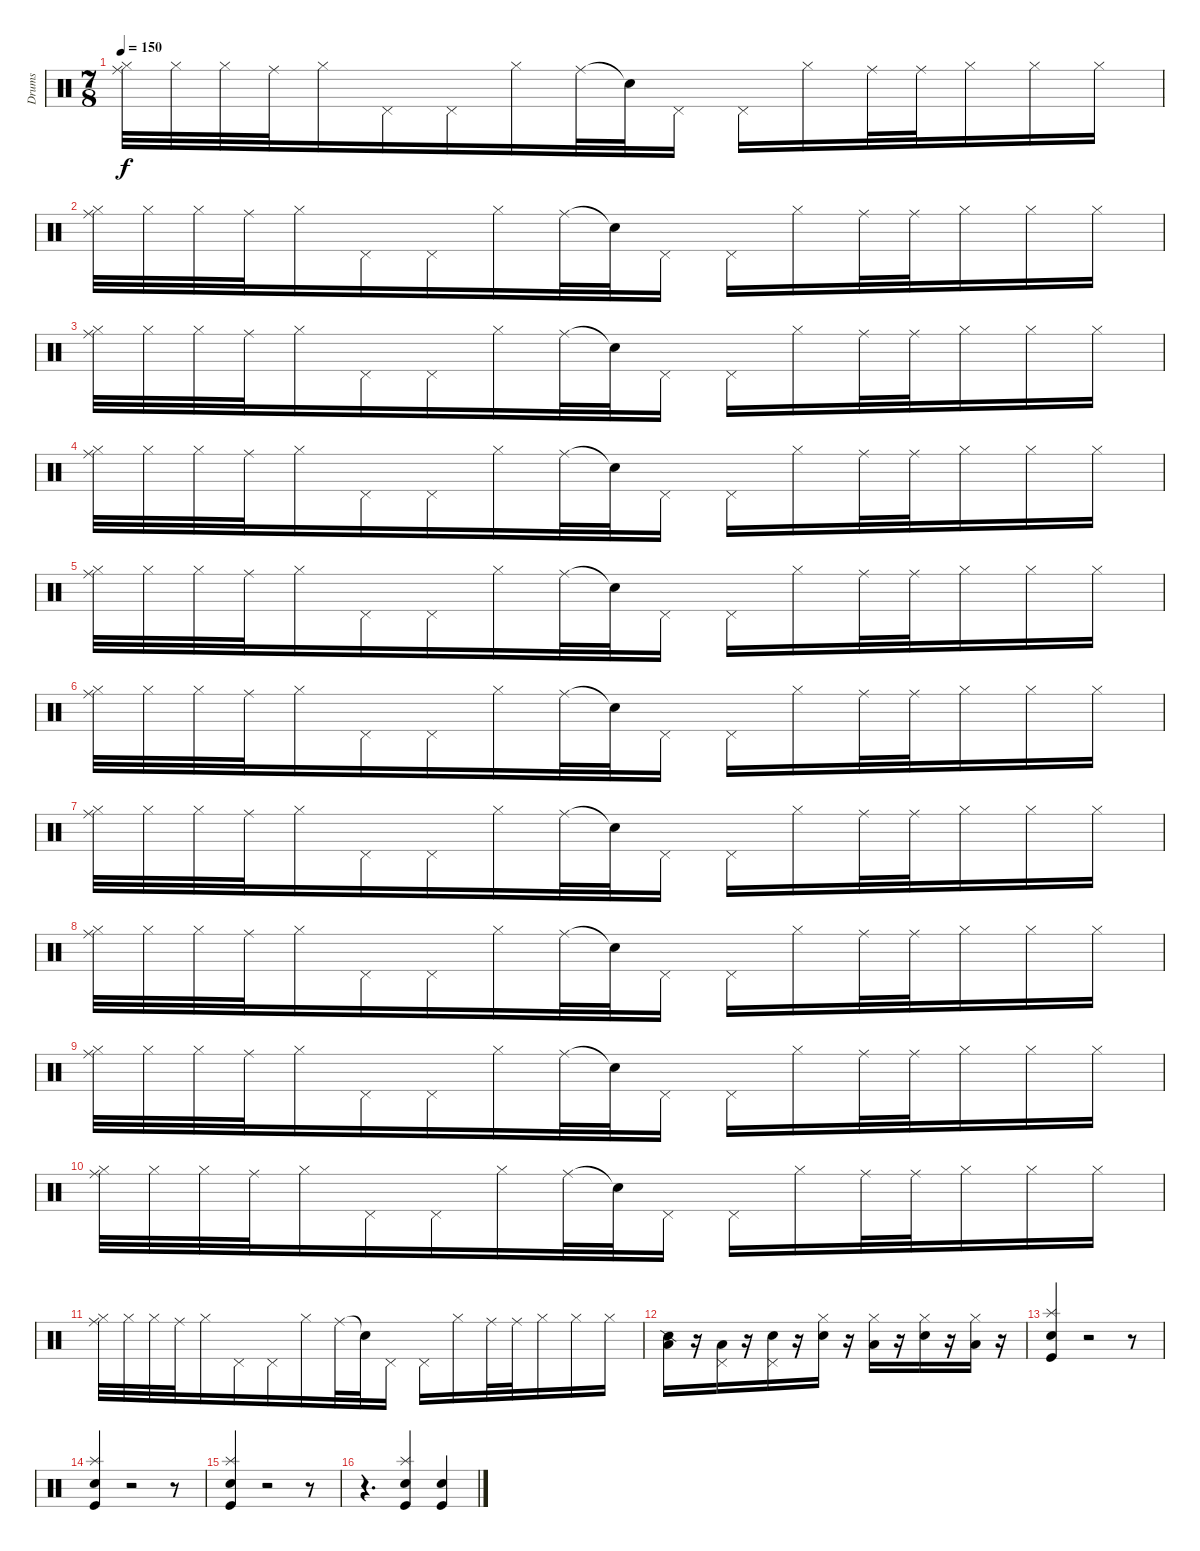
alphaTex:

\track ("Drums" "Drums") {instrument percussion}
\staff {score}
\articulation defaults
\ts (7 8)
\tempo 150
\clef neutral
\ks c
("Hi-Hat (closed)" "Ride (middle)").32{dy f} "Hi-Hat (closed)".32 "Hi-Hat (closed)".32 "Ride (middle)".32 "Hi-Hat (closed)".16 "Pedal Hi-Hat (hit)".16 "Pedal Hi-Hat (hit)".16 "Hi-Hat (closed)".16 "Ride (middle)".32 "Snare (hit)"{t}.32 "Pedal Hi-Hat (hit)".16 "Pedal Hi-Hat (hit)".16 "Hi-Hat (closed)".16 "Ride (middle)".32 "Ride (middle)".32 "Hi-Hat (closed)".16 "Hi-Hat (closed)".16 "Hi-Hat (closed)".16 |
("Hi-Hat (closed)" "Ride (middle)").32 "Hi-Hat (closed)".32 "Hi-Hat (closed)".32 "Ride (middle)".32 "Hi-Hat (closed)".16 "Pedal Hi-Hat (hit)".16 "Pedal Hi-Hat (hit)".16 "Hi-Hat (closed)".16 "Ride (middle)".32 "Snare (hit)"{t}.32 "Pedal Hi-Hat (hit)".16 "Pedal Hi-Hat (hit)".16 "Hi-Hat (closed)".16 "Ride (middle)".32 "Ride (middle)".32 "Hi-Hat (closed)".16 "Hi-Hat (closed)".16 "Hi-Hat (closed)".16 |
("Hi-Hat (closed)" "Ride (middle)").32 "Hi-Hat (closed)".32 "Hi-Hat (closed)".32 "Ride (middle)".32 "Hi-Hat (closed)".16 "Pedal Hi-Hat (hit)".16 "Pedal Hi-Hat (hit)".16 "Hi-Hat (closed)".16 "Ride (middle)".32 "Snare (hit)"{t}.32 "Pedal Hi-Hat (hit)".16 "Pedal Hi-Hat (hit)".16 "Hi-Hat (closed)".16 "Ride (middle)".32 "Ride (middle)".32 "Hi-Hat (closed)".16 "Hi-Hat (closed)".16 "Hi-Hat (closed)".16 |
("Hi-Hat (closed)" "Ride (middle)").32 "Hi-Hat (closed)".32 "Hi-Hat (closed)".32 "Ride (middle)".32 "Hi-Hat (closed)".16 "Pedal Hi-Hat (hit)".16 "Pedal Hi-Hat (hit)".16 "Hi-Hat (closed)".16 "Ride (middle)".32 "Snare (hit)"{t}.32 "Pedal Hi-Hat (hit)".16 "Pedal Hi-Hat (hit)".16 "Hi-Hat (closed)".16 "Ride (middle)".32 "Ride (middle)".32 "Hi-Hat (closed)".16 "Hi-Hat (closed)".16 "Hi-Hat (closed)".16 |
("Hi-Hat (closed)" "Ride (middle)").32 "Hi-Hat (closed)".32 "Hi-Hat (closed)".32 "Ride (middle)".32 "Hi-Hat (closed)".16 "Pedal Hi-Hat (hit)".16 "Pedal Hi-Hat (hit)".16 "Hi-Hat (closed)".16 "Ride (middle)".32 "Snare (hit)"{t}.32 "Pedal Hi-Hat (hit)".16 "Pedal Hi-Hat (hit)".16 "Hi-Hat (closed)".16 "Ride (middle)".32 "Ride (middle)".32 "Hi-Hat (closed)".16 "Hi-Hat (closed)".16 "Hi-Hat (closed)".16 |
("Hi-Hat (closed)" "Ride (middle)").32 "Hi-Hat (closed)".32 "Hi-Hat (closed)".32 "Ride (middle)".32 "Hi-Hat (closed)".16 "Pedal Hi-Hat (hit)".16 "Pedal Hi-Hat (hit)".16 "Hi-Hat (closed)".16 "Ride (middle)".32 "Snare (hit)"{t}.32 "Pedal Hi-Hat (hit)".16 "Pedal Hi-Hat (hit)".16 "Hi-Hat (closed)".16 "Ride (middle)".32 "Ride (middle)".32 "Hi-Hat (closed)".16 "Hi-Hat (closed)".16 "Hi-Hat (closed)".16 |
("Hi-Hat (closed)" "Ride (middle)").32 "Hi-Hat (closed)".32 "Hi-Hat (closed)".32 "Ride (middle)".32 "Hi-Hat (closed)".16 "Pedal Hi-Hat (hit)".16 "Pedal Hi-Hat (hit)".16 "Hi-Hat (closed)".16 "Ride (middle)".32 "Snare (hit)"{t}.32 "Pedal Hi-Hat (hit)".16 "Pedal Hi-Hat (hit)".16 "Hi-Hat (closed)".16 "Ride (middle)".32 "Ride (middle)".32 "Hi-Hat (closed)".16 "Hi-Hat (closed)".16 "Hi-Hat (closed)".16 |
("Hi-Hat (closed)" "Ride (middle)").32 "Hi-Hat (closed)".32 "Hi-Hat (closed)".32 "Ride (middle)".32 "Hi-Hat (closed)".16 "Pedal Hi-Hat (hit)".16 "Pedal Hi-Hat (hit)".16 "Hi-Hat (closed)".16 "Ride (middle)".32 "Snare (hit)"{t}.32 "Pedal Hi-Hat (hit)".16 "Pedal Hi-Hat (hit)".16 "Hi-Hat (closed)".16 "Ride (middle)".32 "Ride (middle)".32 "Hi-Hat (closed)".16 "Hi-Hat (closed)".16 "Hi-Hat (closed)".16 |
("Hi-Hat (closed)" "Ride (middle)").32 "Hi-Hat (closed)".32 "Hi-Hat (closed)".32 "Ride (middle)".32 "Hi-Hat (closed)".16 "Pedal Hi-Hat (hit)".16 "Pedal Hi-Hat (hit)".16 "Hi-Hat (closed)".16 "Ride (middle)".32 "Snare (hit)"{t}.32 "Pedal Hi-Hat (hit)".16 "Pedal Hi-Hat (hit)".16 "Hi-Hat (closed)".16 "Ride (middle)".32 "Ride (middle)".32 "Hi-Hat (closed)".16 "Hi-Hat (closed)".16 "Hi-Hat (closed)".16 |
("Hi-Hat (closed)" "Ride (middle)").32 "Hi-Hat (closed)".32 "Hi-Hat (closed)".32 "Ride (middle)".32 "Hi-Hat (closed)".16 "Pedal Hi-Hat (hit)".16 "Pedal Hi-Hat (hit)".16 "Hi-Hat (closed)".16 "Ride (middle)".32 "Snare (hit)"{t}.32 "Pedal Hi-Hat (hit)".16 "Pedal Hi-Hat (hit)".16 "Hi-Hat (closed)".16 "Ride (middle)".32 "Ride (middle)".32 "Hi-Hat (closed)".16 "Hi-Hat (closed)".16 "Hi-Hat (closed)".16 |
("Hi-Hat (closed)" "Ride (middle)").32 "Hi-Hat (closed)".32 "Hi-Hat (closed)".32 "Ride (middle)".32 "Hi-Hat (closed)".16 "Pedal Hi-Hat (hit)".16 "Pedal Hi-Hat (hit)".16 "Hi-Hat (closed)".16 "Ride (middle)".32 "Snare (hit)"{t}.32 "Pedal Hi-Hat (hit)".16 "Pedal Hi-Hat (hit)".16 "Hi-Hat (closed)".16 "Ride (middle)".32 "Ride (middle)".32 "Hi-Hat (closed)".16 "Hi-Hat (closed)".16 "Hi-Hat (closed)".16 |
("Low Tom (hit)" "Snare (side stick) 2").16 r.16 ("Pedal Hi-Hat (hit)" "Low Tom (hit)").16 r.16 ("Pedal Hi-Hat (hit)" "Snare (hit) 2").16 r.16 ("Hi-Hat (closed)" "Snare (hit) 2").16 r.16 ("Hi-Hat (closed)" "Low Tom (hit)").16 r.16 ("Hi-Hat (closed)" "Snare (hit) 2").16 r.16 ("Hi-Hat (closed)" "Low Tom (hit)").16 r.16 |
("Splash (hit)" "Snare (hit) 2" "Kick (hit)").4 r.2 r.8 |
("Splash (hit)" "Snare (hit) 2" "Kick (hit)").4 r.2 r.8 |
("Splash (hit)" "Snare (hit) 2" "Kick (hit)").4 r.2 r.8 |
r.4{d} ("Splash (hit)" "Snare (hit) 2" "Kick (hit)").4 ("Snare (hit) 2" "Kick (hit)").4
